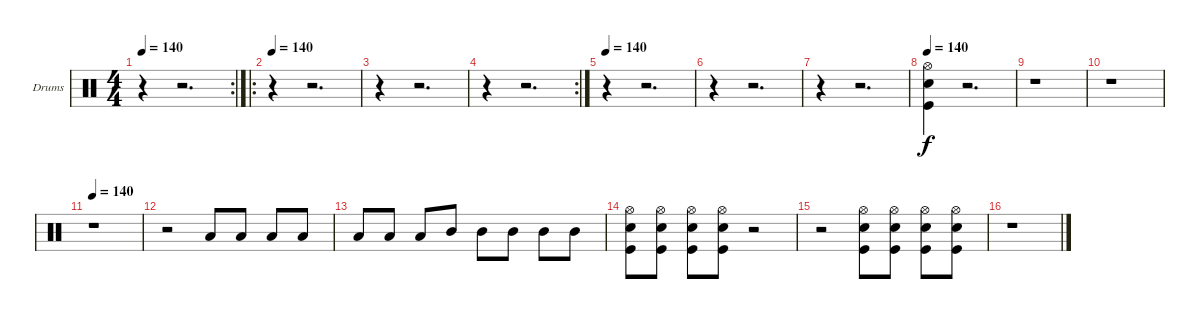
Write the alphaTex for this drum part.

\bracketExtendMode groupsimilarinstruments
\firstSystemTrackNameOrientation horizontal
\otherSystemsTrackNameOrientation horizontal
\track ("Drumkit" "Drums") {instrument percussion}
\staff {score}
\articulation defaults
\rc 2
\ts (4 4)
\tempo 140
\clef neutral
\ks c
r.4{dy f} r.2{d} |
\ro
\tempo 140
r.4 r.2{d} |
r.4 r.2{d} |
\rc 2
r.4 r.2{d} |
\tempo 140
r.4 r.2{d} |
r.4 r.2{d} |
r.4 r.2{d} |
\tempo 140
("Kick (hit)" "Snare (hit) 2" "Hi-Hat (open)").4 r.2{d} |
r.1 |
r.1 |
\tempo 140
r.1 |
r.2 "Low Tom (hit)".8 "Low Tom (hit)".8 "Low Tom (hit)".8 "Low Tom (hit)".8 |
"Low Tom (hit)".8 "Low Tom (hit)".8 "Low Tom (hit)".8 "Mid Tom (hit)".8 "Mid Tom (hit)".8 "Mid Tom (hit)".8 "Mid Tom (hit)".8 "Mid Tom (hit)".8 |
("Kick (hit)" "Snare (hit) 2" "Hi-Hat (open)").8 ("Kick (hit)" "Snare (hit) 2" "Hi-Hat (open)").8 ("Kick (hit)" "Snare (hit) 2" "Hi-Hat (open)").8 ("Kick (hit)" "Snare (hit) 2" "Hi-Hat (open)").8 r.2 |
r.2 ("Kick (hit)" "Snare (hit) 2" "Hi-Hat (open)").8 ("Kick (hit)" "Snare (hit) 2" "Hi-Hat (open)").8 ("Kick (hit)" "Snare (hit) 2" "Hi-Hat (open)").8 ("Kick (hit)" "Snare (hit) 2" "Hi-Hat (open)").8 |
r.1
